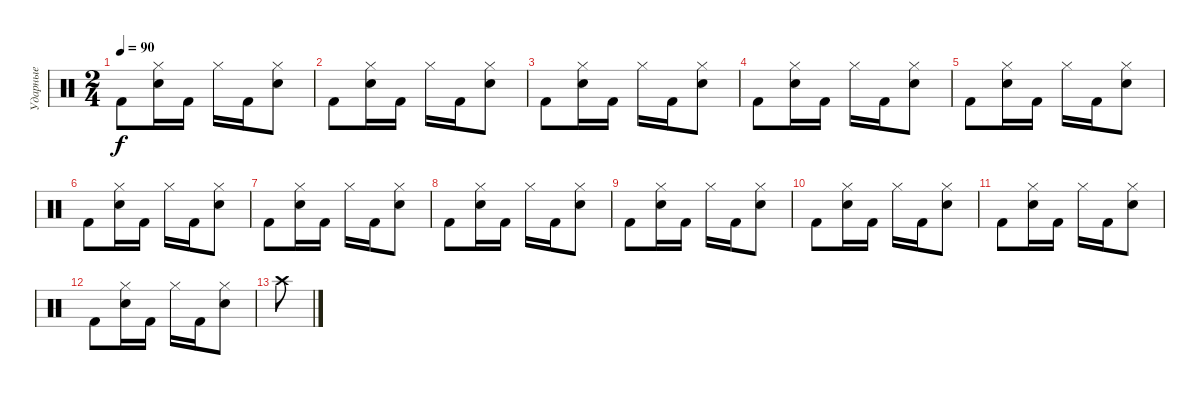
\track ("Ударные" "Ударные") {instrument percussion}
\staff {score}
\articulation defaults
\ts (2 4)
\tempo 90
\clef neutral
\ks c "Kick (hit) 2".8{dy f}
("Hi-Hat (closed)" "Snare (hit) 2").16 "Kick (hit) 2".16 "Hi-Hat (closed)".16 "Kick (hit) 2".16 ("Hi-Hat (closed)" "Snare (hit) 2").8 |
"Kick (hit) 2".8 ("Hi-Hat (closed)" "Snare (hit) 2").16 "Kick (hit) 2".16 "Hi-Hat (closed)".16 "Kick (hit) 2".16 ("Hi-Hat (closed)" "Snare (hit) 2").8 |
"Kick (hit) 2".8 ("Hi-Hat (closed)" "Snare (hit) 2").16 "Kick (hit) 2".16 "Hi-Hat (closed)".16 "Kick (hit) 2".16 ("Hi-Hat (closed)" "Snare (hit) 2").8 |
"Kick (hit) 2".8 ("Hi-Hat (closed)" "Snare (hit) 2").16 "Kick (hit) 2".16 "Hi-Hat (closed)".16 "Kick (hit) 2".16 ("Hi-Hat (closed)" "Snare (hit) 2").8 |
"Kick (hit) 2".8 ("Hi-Hat (closed)" "Snare (hit) 2").16 "Kick (hit) 2".16 "Hi-Hat (closed)".16 "Kick (hit) 2".16 ("Hi-Hat (closed)" "Snare (hit) 2").8 |
"Kick (hit) 2".8 ("Hi-Hat (closed)" "Snare (hit) 2").16 "Kick (hit) 2".16 "Hi-Hat (closed)".16 "Kick (hit) 2".16 ("Hi-Hat (closed)" "Snare (hit) 2").8 |
"Kick (hit) 2".8 ("Hi-Hat (closed)" "Snare (hit) 2").16 "Kick (hit) 2".16 "Hi-Hat (closed)".16 "Kick (hit) 2".16 ("Hi-Hat (closed)" "Snare (hit) 2").8 |
"Kick (hit) 2".8 ("Hi-Hat (closed)" "Snare (hit) 2").16 "Kick (hit) 2".16 "Hi-Hat (closed)".16 "Kick (hit) 2".16 ("Hi-Hat (closed)" "Snare (hit) 2").8 |
"Kick (hit) 2".8 ("Hi-Hat (closed)" "Snare (hit) 2").16 "Kick (hit) 2".16 "Hi-Hat (closed)".16 "Kick (hit) 2".16 ("Hi-Hat (closed)" "Snare (hit) 2").8 |
"Kick (hit) 2".8 ("Hi-Hat (closed)" "Snare (hit) 2").16 "Kick (hit) 2".16 "Hi-Hat (closed)".16 "Kick (hit) 2".16 ("Hi-Hat (closed)" "Snare (hit) 2").8 |
"Kick (hit) 2".8 ("Hi-Hat (closed)" "Snare (hit) 2").16 "Kick (hit) 2".16 "Hi-Hat (closed)".16 "Kick (hit) 2".16 ("Hi-Hat (closed)" "Snare (hit) 2").8 |
"Kick (hit) 2".8 ("Hi-Hat (closed)" "Snare (hit) 2").16 "Kick (hit) 2".16 "Hi-Hat (closed)".16 "Kick (hit) 2".16 ("Hi-Hat (closed)" "Snare (hit) 2").8 |
"Crash high (hit)".8
